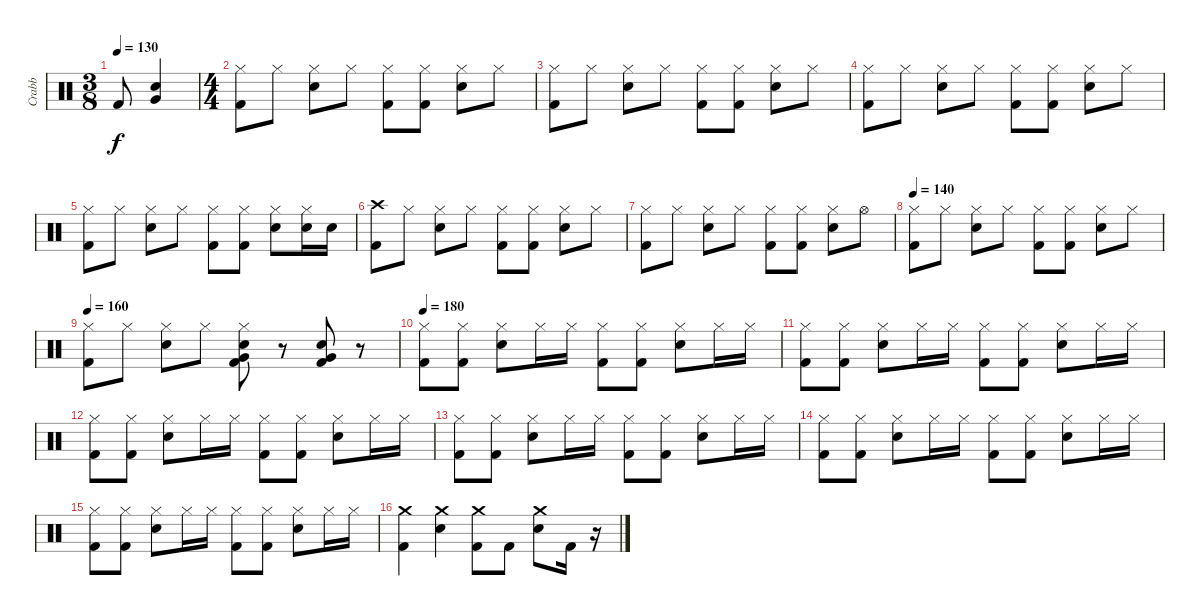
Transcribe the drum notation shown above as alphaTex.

\track ("Crabb" "Crabb") {instrument percussion}
\staff {score}
\articulation defaults
\ts (3 8)
\tempo 130
\clef neutral
\ks c "Kick (hit) 2".8{dy f}
("Very Low Tom (hit)" "Electric Snare (hit)").4 |
\ts (4 4)
("Hi-Hat (closed)" "Kick (hit) 2").8 "Hi-Hat (closed)".8 ("Hi-Hat (closed)" "Electric Snare (hit)").8 "Hi-Hat (closed)".8 ("Hi-Hat (closed)" "Kick (hit) 2").8 ("Hi-Hat (closed)" "Kick (hit) 2").8 ("Hi-Hat (closed)" "Electric Snare (hit)").8 "Hi-Hat (closed)".8 |
("Hi-Hat (closed)" "Kick (hit) 2").8 "Hi-Hat (closed)".8 ("Hi-Hat (closed)" "Electric Snare (hit)").8 "Hi-Hat (closed)".8 ("Hi-Hat (closed)" "Kick (hit) 2").8 ("Hi-Hat (closed)" "Kick (hit) 2").8 ("Hi-Hat (closed)" "Electric Snare (hit)").8 "Hi-Hat (closed)".8 |
("Hi-Hat (closed)" "Kick (hit) 2").8 "Hi-Hat (closed)".8 ("Hi-Hat (closed)" "Electric Snare (hit)").8 "Hi-Hat (closed)".8 ("Hi-Hat (closed)" "Kick (hit) 2").8 ("Hi-Hat (closed)" "Kick (hit) 2").8 ("Hi-Hat (closed)" "Electric Snare (hit)").8 "Hi-Hat (closed)".8 |
("Hi-Hat (closed)" "Kick (hit) 2").8 "Hi-Hat (closed)".8 ("Hi-Hat (closed)" "Electric Snare (hit)").8 "Hi-Hat (closed)".8 ("Hi-Hat (closed)" "Kick (hit) 2").8 ("Hi-Hat (closed)" "Kick (hit) 2").8 ("Hi-Hat (closed)" "Electric Snare (hit)").8 ("Hi-Hat (closed)" "Electric Snare (hit)").16 "Electric Snare (hit)".16 |
("Crash high (hit)" "Kick (hit) 2").8 "Hi-Hat (closed)".8 ("Hi-Hat (closed)" "Electric Snare (hit)").8 "Hi-Hat (closed)".8 ("Hi-Hat (closed)" "Kick (hit) 2").8 ("Hi-Hat (closed)" "Kick (hit) 2").8 ("Hi-Hat (closed)" "Electric Snare (hit)").8 "Hi-Hat (closed)".8 |
("Hi-Hat (closed)" "Kick (hit) 2").8 "Hi-Hat (closed)".8 ("Hi-Hat (closed)" "Electric Snare (hit)").8 "Hi-Hat (closed)".8 ("Hi-Hat (closed)" "Kick (hit) 2").8 ("Hi-Hat (closed)" "Kick (hit) 2").8 ("Hi-Hat (closed)" "Electric Snare (hit)").8 "Hi-Hat (open)".8 |
\tempo 140
("Hi-Hat (closed)" "Kick (hit) 2").8 "Hi-Hat (closed)".8 ("Hi-Hat (closed)" "Electric Snare (hit)").8 "Hi-Hat (closed)".8 ("Hi-Hat (closed)" "Kick (hit) 2").8 ("Hi-Hat (closed)" "Kick (hit) 2").8 ("Hi-Hat (closed)" "Electric Snare (hit)").8 "Hi-Hat (closed)".8 |
\tempo 160
("Hi-Hat (closed)" "Kick (hit) 2").8 "Hi-Hat (closed)".8 ("Hi-Hat (closed)" "Electric Snare (hit)").8 "Hi-Hat (closed)".8 ("Hi-Hat (closed)" "Electric Snare (hit)" "Very Low Tom (hit)" "Kick (hit) 2").8 r.8 ("Very Low Tom (hit)" "Electric Snare (hit)" "Kick (hit) 2").8 r.8 |
\tempo 180
("Hi-Hat (closed)" "Kick (hit) 2").8 ("Hi-Hat (closed)" "Kick (hit) 2").8 ("Hi-Hat (closed)" "Electric Snare (hit)").8 "Hi-Hat (closed)".16 "Hi-Hat (closed)".16 ("Hi-Hat (closed)" "Kick (hit) 2").8 ("Hi-Hat (closed)" "Kick (hit) 2").8 ("Hi-Hat (closed)" "Electric Snare (hit)").8 "Hi-Hat (closed)".16 "Hi-Hat (closed)".16 |
("Hi-Hat (closed)" "Kick (hit) 2").8 ("Hi-Hat (closed)" "Kick (hit) 2").8 ("Hi-Hat (closed)" "Electric Snare (hit)").8 "Hi-Hat (closed)".16 "Hi-Hat (closed)".16 ("Hi-Hat (closed)" "Kick (hit) 2").8 ("Hi-Hat (closed)" "Kick (hit) 2").8 ("Hi-Hat (closed)" "Electric Snare (hit)").8 "Hi-Hat (closed)".16 "Hi-Hat (closed)".16 |
("Hi-Hat (closed)" "Kick (hit) 2").8 ("Hi-Hat (closed)" "Kick (hit) 2").8 ("Hi-Hat (closed)" "Electric Snare (hit)").8 "Hi-Hat (closed)".16 "Hi-Hat (closed)".16 ("Hi-Hat (closed)" "Kick (hit) 2").8 ("Hi-Hat (closed)" "Kick (hit) 2").8 ("Hi-Hat (closed)" "Electric Snare (hit)").8 "Hi-Hat (closed)".16 "Hi-Hat (closed)".16 |
("Hi-Hat (closed)" "Kick (hit) 2").8 ("Hi-Hat (closed)" "Kick (hit) 2").8 ("Hi-Hat (closed)" "Electric Snare (hit)").8 "Hi-Hat (closed)".16 "Hi-Hat (closed)".16 ("Hi-Hat (closed)" "Kick (hit) 2").8 ("Hi-Hat (closed)" "Kick (hit) 2").8 ("Hi-Hat (closed)" "Electric Snare (hit)").8 "Hi-Hat (closed)".16 "Hi-Hat (closed)".16 |
("Hi-Hat (closed)" "Kick (hit) 2").8 ("Hi-Hat (closed)" "Kick (hit) 2").8 ("Hi-Hat (closed)" "Electric Snare (hit)").8 "Hi-Hat (closed)".16 "Hi-Hat (closed)".16 ("Hi-Hat (closed)" "Kick (hit) 2").8 ("Hi-Hat (closed)" "Kick (hit) 2").8 ("Hi-Hat (closed)" "Electric Snare (hit)").8 "Hi-Hat (closed)".16 "Hi-Hat (closed)".16 |
("Hi-Hat (closed)" "Kick (hit) 2").8 ("Hi-Hat (closed)" "Kick (hit) 2").8 ("Hi-Hat (closed)" "Electric Snare (hit)").8 "Hi-Hat (closed)".16 "Hi-Hat (closed)".16 ("Hi-Hat (closed)" "Kick (hit) 2").8 ("Hi-Hat (closed)" "Kick (hit) 2").8 ("Hi-Hat (closed)" "Electric Snare (hit)").8 "Hi-Hat (closed)".16 "Hi-Hat (closed)".16 |
("Crash medium (hit)" "Kick (hit) 2").4 ("Crash medium (hit)" "Electric Snare (hit)").4 ("Crash medium (hit)" "Kick (hit) 2").8 "Kick (hit) 2".8 ("Crash medium (hit)" "Electric Snare (hit)").8 "Kick (hit) 2".16 r.16
